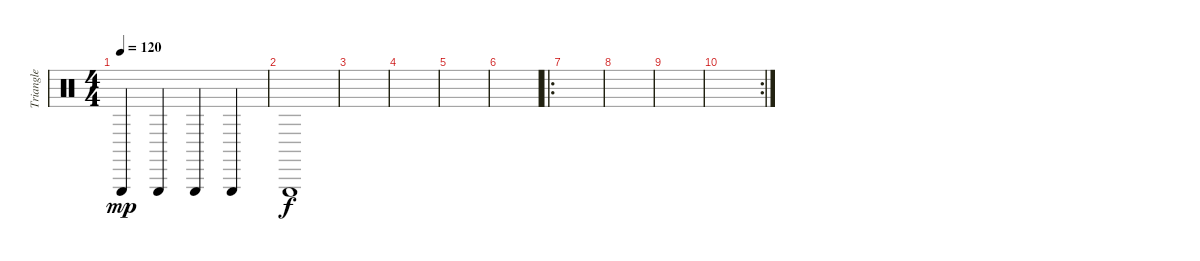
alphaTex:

\track ("Triangle" "Triangle") {instrument percussion}
\staff {score}
\articulation defaults
\ts (4 4)
\tempo 120
\clef neutral
\ks c "Triangle (hit)".4{dy mp} "Triangle (hit)".4 "Triangle (hit)".4 "Triangle (hit)".4
|
"Triangle (hit)".1{dy f} |
|
|
|
|
\ro
|
|
|
\rc 2
